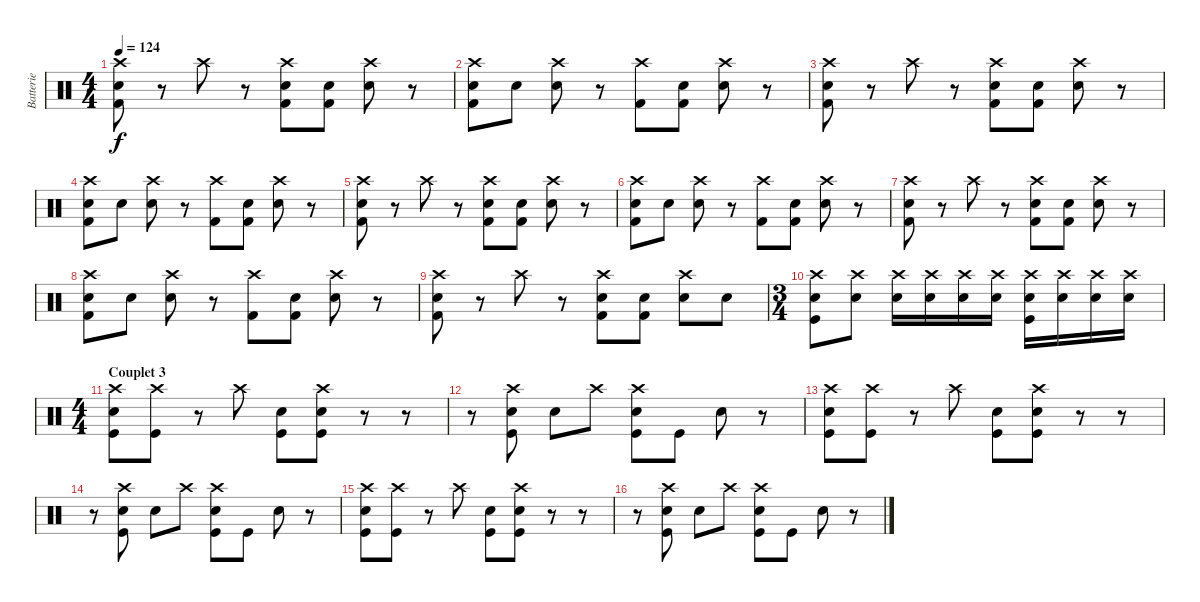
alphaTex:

\track ("Batterie" "Batterie") {instrument percussion}
\staff {score}
\articulation defaults
\ts (4 4)
\tempo 124
\clef neutral
\ks c
("Crash high (hit)" "Snare (hit) 2" "Kick (hit) 2").8{dy f} r.8 "Crash high (hit)".8 r.8 ("Crash high (hit)" "Snare (hit) 2" "Kick (hit) 2").8 ("Snare (hit) 2" "Kick (hit) 2").8 ("Crash high (hit)" "Snare (hit) 2").8 r.8 |
("Crash high (hit)" "Snare (hit) 2" "Kick (hit) 2").8 "Snare (hit) 2".8 ("Crash high (hit)" "Snare (hit) 2").8 r.8 ("Crash high (hit)" "Kick (hit) 2").8 ("Snare (hit) 2" "Kick (hit) 2").8 ("Crash high (hit)" "Snare (hit) 2").8 r.8 |
("Crash high (hit)" "Snare (hit) 2" "Kick (hit) 2").8 r.8 "Crash high (hit)".8 r.8 ("Crash high (hit)" "Snare (hit) 2" "Kick (hit) 2").8 ("Snare (hit) 2" "Kick (hit) 2").8 ("Crash high (hit)" "Snare (hit) 2").8 r.8 |
("Crash high (hit)" "Snare (hit) 2" "Kick (hit) 2").8 "Snare (hit) 2".8 ("Crash high (hit)" "Snare (hit) 2").8 r.8 ("Crash high (hit)" "Kick (hit) 2").8 ("Snare (hit) 2" "Kick (hit) 2").8 ("Crash high (hit)" "Snare (hit) 2").8 r.8 |
("Crash high (hit)" "Snare (hit) 2" "Kick (hit) 2").8 r.8 "Crash high (hit)".8 r.8 ("Crash high (hit)" "Snare (hit) 2" "Kick (hit) 2").8 ("Snare (hit) 2" "Kick (hit) 2").8 ("Crash high (hit)" "Snare (hit) 2").8 r.8 |
("Crash high (hit)" "Snare (hit) 2" "Kick (hit) 2").8 "Snare (hit) 2".8 ("Crash high (hit)" "Snare (hit) 2").8 r.8 ("Crash high (hit)" "Kick (hit) 2").8 ("Snare (hit) 2" "Kick (hit) 2").8 ("Crash high (hit)" "Snare (hit) 2").8 r.8 |
("Crash high (hit)" "Snare (hit) 2" "Kick (hit) 2").8 r.8 "Crash high (hit)".8 r.8 ("Crash high (hit)" "Snare (hit) 2" "Kick (hit) 2").8 ("Snare (hit) 2" "Kick (hit) 2").8 ("Crash high (hit)" "Snare (hit) 2").8 r.8 |
("Crash high (hit)" "Snare (hit) 2" "Kick (hit) 2").8 "Snare (hit) 2".8 ("Crash high (hit)" "Snare (hit) 2").8 r.8 ("Crash high (hit)" "Kick (hit) 2").8 ("Snare (hit) 2" "Kick (hit) 2").8 ("Crash high (hit)" "Snare (hit) 2").8 r.8 |
("Crash high (hit)" "Snare (hit) 2" "Kick (hit) 2").8 r.8 "Crash high (hit)".8 r.8 ("Crash high (hit)" "Snare (hit) 2" "Kick (hit) 2").8 ("Snare (hit) 2" "Kick (hit) 2").8 ("Crash high (hit)" "Snare (hit) 2").8 "Snare (hit) 2".8 |
\ts (3 4)
("Crash high (hit)" "Snare (hit) 2" "Kick (hit)").8 ("Crash high (hit)" "Snare (hit) 2").8 ("Crash high (hit)" "Snare (hit) 2").16 ("Crash high (hit)" "Snare (hit) 2").16 ("Crash high (hit)" "Snare (hit) 2").16 ("Crash high (hit)" "Snare (hit) 2").16 ("Crash high (hit)" "Snare (hit) 2" "Kick (hit)").16 ("Crash high (hit)" "Snare (hit) 2").16 ("Crash high (hit)" "Snare (hit) 2").16 ("Crash high (hit)" "Snare (hit) 2").16 |
\ts (4 4)
\section ("" "Couplet 3")
("Crash high (hit)" "Snare (hit) 2" "Kick (hit)").8 ("Crash high (hit)" "Kick (hit)").8 r.8 "Crash high (hit)".8 ("Snare (hit) 2" "Kick (hit)").8 ("Crash high (hit)" "Snare (hit) 2" "Kick (hit)").8 r.8 r.8 |
r.8 ("Crash high (hit)" "Snare (hit) 2" "Kick (hit)").8 "Snare (hit) 2".8 "Crash high (hit)".8 ("Crash high (hit)" "Snare (hit) 2" "Kick (hit)").8 "Kick (hit)".8 "Snare (hit) 2".8 r.8 |
("Crash high (hit)" "Snare (hit) 2" "Kick (hit)").8 ("Crash high (hit)" "Kick (hit)").8 r.8 "Crash high (hit)".8 ("Snare (hit) 2" "Kick (hit)").8 ("Crash high (hit)" "Snare (hit) 2" "Kick (hit)").8 r.8 r.8 |
r.8 ("Crash high (hit)" "Snare (hit) 2" "Kick (hit)").8 "Snare (hit) 2".8 "Crash high (hit)".8 ("Crash high (hit)" "Snare (hit) 2" "Kick (hit)").8 "Kick (hit)".8 "Snare (hit) 2".8 r.8 |
("Crash high (hit)" "Snare (hit) 2" "Kick (hit)").8 ("Crash high (hit)" "Kick (hit)").8 r.8 "Crash high (hit)".8 ("Snare (hit) 2" "Kick (hit)").8 ("Crash high (hit)" "Snare (hit) 2" "Kick (hit)").8 r.8 r.8 |
r.8 ("Crash high (hit)" "Snare (hit) 2" "Kick (hit)").8 "Snare (hit) 2".8 "Crash high (hit)".8 ("Crash high (hit)" "Snare (hit) 2" "Kick (hit)").8 "Kick (hit)".8 "Snare (hit) 2".8 r.8
